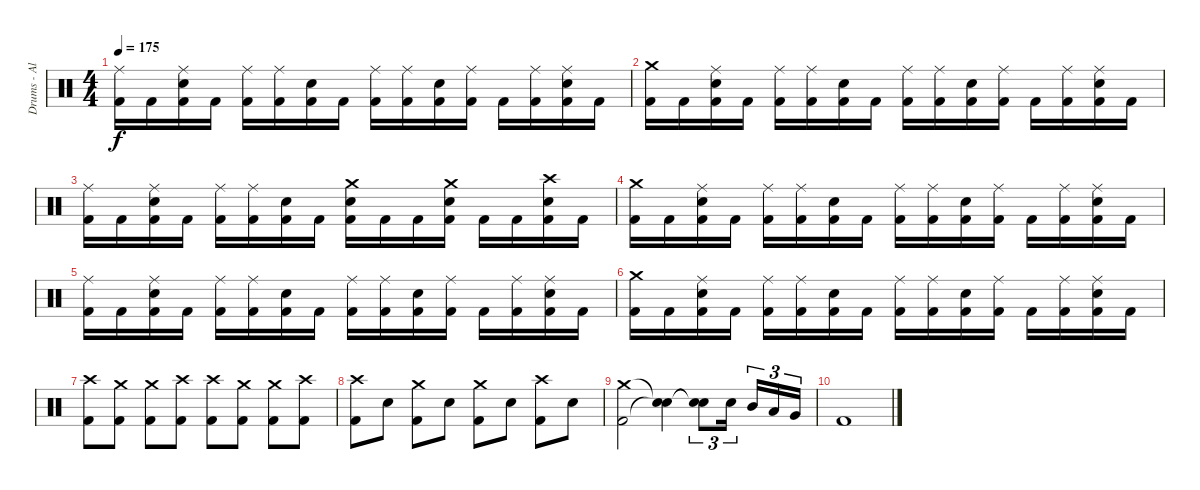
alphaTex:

\track ("Drums - Albin" "Drums - Al") {instrument percussion}
\staff {score}
\articulation defaults
\ts (4 4)
\tempo 175
\clef neutral
\ks c
("Ride (middle)" "Kick (hit) 2").16{dy f} "Kick (hit) 2".16 ("Ride (middle)" "Snare (hit) 2" "Kick (hit) 2").16 "Kick (hit) 2".16 ("Ride (middle)" "Kick (hit) 2").16 ("Ride (middle)" "Kick (hit) 2").16 ("Snare (hit) 2" "Kick (hit) 2").16 "Kick (hit) 2".16 ("Ride (middle)" "Kick (hit) 2").16 ("Ride (middle)" "Kick (hit) 2").16 ("Snare (hit) 2" "Kick (hit) 2").16 ("Ride (middle)" "Kick (hit) 2").16 "Kick (hit) 2".16 ("Ride (middle)" "Kick (hit) 2").16 ("Ride (middle)" "Snare (hit) 2" "Kick (hit) 2").16 "Kick (hit) 2".16 |
("Crash medium (hit)" "Kick (hit) 2").16 "Kick (hit) 2".16 ("Ride (middle)" "Snare (hit) 2" "Kick (hit) 2").16 "Kick (hit) 2".16 ("Ride (middle)" "Kick (hit) 2").16 ("Ride (middle)" "Kick (hit) 2").16 ("Snare (hit) 2" "Kick (hit) 2").16 "Kick (hit) 2".16 ("Ride (middle)" "Kick (hit) 2").16 ("Ride (middle)" "Kick (hit) 2").16 ("Snare (hit) 2" "Kick (hit) 2").16 ("Ride (middle)" "Kick (hit) 2").16 "Kick (hit) 2".16 ("Ride (middle)" "Kick (hit) 2").16 ("Ride (middle)" "Snare (hit) 2" "Kick (hit) 2").16 "Kick (hit) 2".16 |
("Ride (middle)" "Kick (hit) 2").16 "Kick (hit) 2".16 ("Ride (middle)" "Snare (hit) 2" "Kick (hit) 2").16 "Kick (hit) 2".16 ("Ride (middle)" "Kick (hit) 2").16 ("Ride (middle)" "Kick (hit) 2").16 ("Snare (hit) 2" "Kick (hit) 2").16 "Kick (hit) 2".16 ("Crash medium (hit)" "Snare (hit) 2" "Kick (hit) 2").16 "Kick (hit) 2".16 "Kick (hit) 2".16 ("Crash medium (hit)" "Snare (hit) 2" "Kick (hit) 2").16 "Kick (hit) 2".16 "Kick (hit) 2".16 ("Crash high (hit)" "Snare (hit) 2" "Kick (hit) 2").16 "Kick (hit) 2".16 |
("Crash medium (hit)" "Kick (hit) 2").16 "Kick (hit) 2".16 ("Ride (middle)" "Snare (hit) 2" "Kick (hit) 2").16 "Kick (hit) 2".16 ("Ride (middle)" "Kick (hit) 2").16 ("Ride (middle)" "Kick (hit) 2").16 ("Snare (hit) 2" "Kick (hit) 2").16 "Kick (hit) 2".16 ("Ride (middle)" "Kick (hit) 2").16 ("Ride (middle)" "Kick (hit) 2").16 ("Snare (hit) 2" "Kick (hit) 2").16 ("Ride (middle)" "Kick (hit) 2").16 "Kick (hit) 2".16 ("Ride (middle)" "Kick (hit) 2").16 ("Ride (middle)" "Snare (hit) 2" "Kick (hit) 2").16 "Kick (hit) 2".16 |
("Ride (middle)" "Kick (hit) 2").16 "Kick (hit) 2".16 ("Ride (middle)" "Snare (hit) 2" "Kick (hit) 2").16 "Kick (hit) 2".16 ("Ride (middle)" "Kick (hit) 2").16 ("Ride (middle)" "Kick (hit) 2").16 ("Snare (hit) 2" "Kick (hit) 2").16 "Kick (hit) 2".16 ("Ride (middle)" "Kick (hit) 2").16 ("Ride (middle)" "Kick (hit) 2").16 ("Snare (hit) 2" "Kick (hit) 2").16 ("Ride (middle)" "Kick (hit) 2").16 "Kick (hit) 2".16 ("Ride (middle)" "Kick (hit) 2").16 ("Ride (middle)" "Snare (hit) 2" "Kick (hit) 2").16 "Kick (hit) 2".16 |
("Crash medium (hit)" "Kick (hit) 2").16 "Kick (hit) 2".16 ("Ride (middle)" "Snare (hit) 2" "Kick (hit) 2").16 "Kick (hit) 2".16 ("Ride (middle)" "Kick (hit) 2").16 ("Ride (middle)" "Kick (hit) 2").16 ("Snare (hit) 2" "Kick (hit) 2").16 "Kick (hit) 2".16 ("Ride (middle)" "Kick (hit) 2").16 ("Ride (middle)" "Kick (hit) 2").16 ("Snare (hit) 2" "Kick (hit) 2").16 ("Ride (middle)" "Kick (hit) 2").16 "Kick (hit) 2".16 ("Ride (middle)" "Kick (hit) 2").16 ("Ride (middle)" "Snare (hit) 2" "Kick (hit) 2").16 "Kick (hit) 2".16 |
("Crash high (hit)" "Kick (hit) 2").8 ("Crash medium (hit)" "Kick (hit) 2").8 ("Crash medium (hit)" "Kick (hit) 2").8 ("Crash high (hit)" "Kick (hit) 2").8 ("Crash high (hit)" "Kick (hit) 2").8 ("Crash medium (hit)" "Kick (hit) 2").8 ("Crash medium (hit)" "Kick (hit) 2").8 ("Crash high (hit)" "Kick (hit) 2").8 |
("Crash high (hit)" "Kick (hit) 2").8 "Snare (hit) 2".8 ("Crash medium (hit)" "Kick (hit) 2").8 "Snare (hit) 2".8 ("Crash medium (hit)" "Kick (hit) 2").8 "Snare (hit) 2".8 ("Crash high (hit)" "Kick (hit) 2").8 "Snare (hit) 2".8 |
("Crash medium (hit)" "Kick (hit) 2").2 ("Snare (hit)"{t} "Snare (hit)"{t}).4 ("Snare (hit)"{t} "Snare (hit)"{t}).8{tu (3 2)} "Snare (hit) 2".16{tu (3 2)} "Mid Tom (hit)".16{tu (3 2)} "Low Tom (hit)".16{tu (3 2)} "Very Low Tom (hit)".16{tu (3 2)} |
"Kick (hit) 2".1
